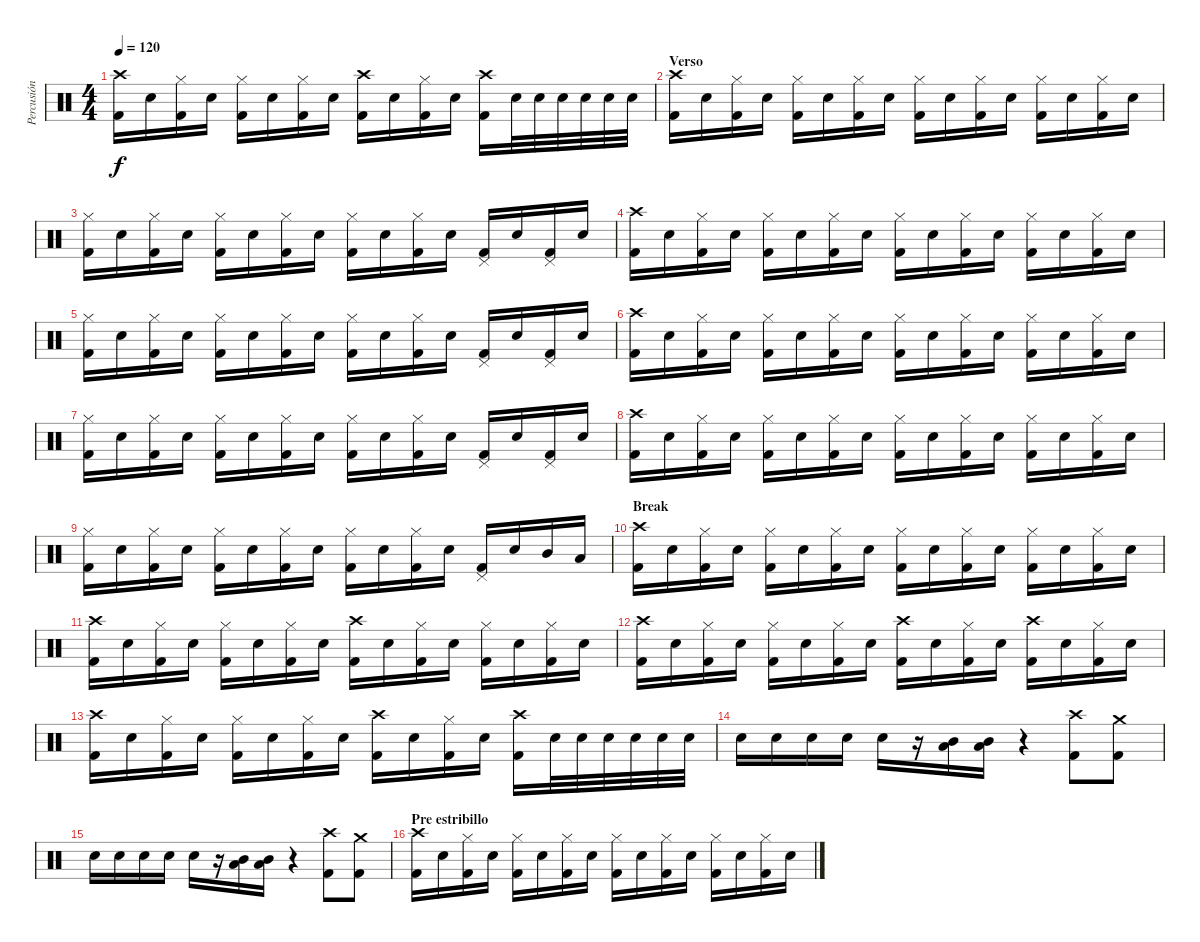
\track ("Percusión" "Percusión") {instrument percussion}
\staff {score}
\articulation defaults
\ts (4 4)
\tempo 120
\clef neutral
\ks c
("Crash high (hit)" "Kick (hit) 2").16{dy f} "Snare (hit) 2".16 ("Hi-Hat (closed)" "Kick (hit) 2").16 "Snare (hit) 2".16 ("Hi-Hat (closed)" "Kick (hit) 2").16 "Snare (hit) 2".16 ("Hi-Hat (closed)" "Kick (hit) 2").16 "Snare (hit) 2".16 ("Crash high (hit)" "Kick (hit) 2").16 "Snare (hit) 2".16 ("Hi-Hat (closed)" "Kick (hit) 2").16 "Snare (hit) 2".16 ("Crash high (hit)" "Kick (hit) 2").16 "Snare (hit) 2".32 "Snare (hit) 2".32 "Snare (hit) 2".32 "Snare (hit) 2".32 "Snare (hit) 2".32 "Snare (hit) 2".32 |
\section ("" "Verso")
("Crash high (hit)" "Kick (hit) 2").16 "Snare (hit) 2".16 ("Hi-Hat (closed)" "Kick (hit) 2").16 "Snare (hit) 2".16 ("Hi-Hat (closed)" "Kick (hit) 2").16 "Snare (hit) 2".16 ("Hi-Hat (closed)" "Kick (hit) 2").16 "Snare (hit) 2".16 ("Hi-Hat (closed)" "Kick (hit) 2").16 "Snare (hit) 2".16 ("Hi-Hat (closed)" "Kick (hit) 2").16 "Snare (hit) 2".16 ("Hi-Hat (closed)" "Kick (hit) 2").16 "Snare (hit) 2".16 ("Hi-Hat (closed)" "Kick (hit) 2").16 "Snare (hit) 2".16 |
("Hi-Hat (closed)" "Kick (hit) 2").16 "Snare (hit) 2".16 ("Hi-Hat (closed)" "Kick (hit) 2").16 "Snare (hit) 2".16 ("Hi-Hat (closed)" "Kick (hit) 2").16 "Snare (hit) 2".16 ("Hi-Hat (closed)" "Kick (hit) 2").16 "Snare (hit) 2".16 ("Hi-Hat (closed)" "Kick (hit) 2").16 "Snare (hit) 2".16 ("Hi-Hat (closed)" "Kick (hit) 2").16 "Snare (hit) 2".16 ("Pedal Hi-Hat (hit)" "Kick (hit) 2").16 "Snare (hit) 2".16 ("Pedal Hi-Hat (hit)" "Kick (hit) 2").16 "Snare (hit) 2".16 |
("Crash high (hit)" "Kick (hit) 2").16 "Snare (hit) 2".16 ("Hi-Hat (closed)" "Kick (hit) 2").16 "Snare (hit) 2".16 ("Hi-Hat (closed)" "Kick (hit) 2").16 "Snare (hit) 2".16 ("Hi-Hat (closed)" "Kick (hit) 2").16 "Snare (hit) 2".16 ("Hi-Hat (closed)" "Kick (hit) 2").16 "Snare (hit) 2".16 ("Hi-Hat (closed)" "Kick (hit) 2").16 "Snare (hit) 2".16 ("Hi-Hat (closed)" "Kick (hit) 2").16 "Snare (hit) 2".16 ("Hi-Hat (closed)" "Kick (hit) 2").16 "Snare (hit) 2".16 |
("Hi-Hat (closed)" "Kick (hit) 2").16 "Snare (hit) 2".16 ("Hi-Hat (closed)" "Kick (hit) 2").16 "Snare (hit) 2".16 ("Hi-Hat (closed)" "Kick (hit) 2").16 "Snare (hit) 2".16 ("Hi-Hat (closed)" "Kick (hit) 2").16 "Snare (hit) 2".16 ("Hi-Hat (closed)" "Kick (hit) 2").16 "Snare (hit) 2".16 ("Hi-Hat (closed)" "Kick (hit) 2").16 "Snare (hit) 2".16 ("Pedal Hi-Hat (hit)" "Kick (hit) 2").16 "Snare (hit) 2".16 ("Pedal Hi-Hat (hit)" "Kick (hit) 2").16 "Snare (hit) 2".16 |
("Crash high (hit)" "Kick (hit) 2").16 "Snare (hit) 2".16 ("Hi-Hat (closed)" "Kick (hit) 2").16 "Snare (hit) 2".16 ("Hi-Hat (closed)" "Kick (hit) 2").16 "Snare (hit) 2".16 ("Hi-Hat (closed)" "Kick (hit) 2").16 "Snare (hit) 2".16 ("Hi-Hat (closed)" "Kick (hit) 2").16 "Snare (hit) 2".16 ("Hi-Hat (closed)" "Kick (hit) 2").16 "Snare (hit) 2".16 ("Hi-Hat (closed)" "Kick (hit) 2").16 "Snare (hit) 2".16 ("Hi-Hat (closed)" "Kick (hit) 2").16 "Snare (hit) 2".16 |
("Hi-Hat (closed)" "Kick (hit) 2").16 "Snare (hit) 2".16 ("Hi-Hat (closed)" "Kick (hit) 2").16 "Snare (hit) 2".16 ("Hi-Hat (closed)" "Kick (hit) 2").16 "Snare (hit) 2".16 ("Hi-Hat (closed)" "Kick (hit) 2").16 "Snare (hit) 2".16 ("Hi-Hat (closed)" "Kick (hit) 2").16 "Snare (hit) 2".16 ("Hi-Hat (closed)" "Kick (hit) 2").16 "Snare (hit) 2".16 ("Pedal Hi-Hat (hit)" "Kick (hit) 2").16 "Snare (hit) 2".16 ("Pedal Hi-Hat (hit)" "Kick (hit) 2").16 "Snare (hit) 2".16 |
("Crash high (hit)" "Kick (hit) 2").16 "Snare (hit) 2".16 ("Hi-Hat (closed)" "Kick (hit) 2").16 "Snare (hit) 2".16 ("Hi-Hat (closed)" "Kick (hit) 2").16 "Snare (hit) 2".16 ("Hi-Hat (closed)" "Kick (hit) 2").16 "Snare (hit) 2".16 ("Hi-Hat (closed)" "Kick (hit) 2").16 "Snare (hit) 2".16 ("Hi-Hat (closed)" "Kick (hit) 2").16 "Snare (hit) 2".16 ("Hi-Hat (closed)" "Kick (hit) 2").16 "Snare (hit) 2".16 ("Hi-Hat (closed)" "Kick (hit) 2").16 "Snare (hit) 2".16 |
("Hi-Hat (closed)" "Kick (hit) 2").16 "Snare (hit) 2".16 ("Hi-Hat (closed)" "Kick (hit) 2").16 "Snare (hit) 2".16 ("Hi-Hat (closed)" "Kick (hit) 2").16 "Snare (hit) 2".16 ("Hi-Hat (closed)" "Kick (hit) 2").16 "Snare (hit) 2".16 ("Hi-Hat (closed)" "Kick (hit) 2").16 "Snare (hit) 2".16 ("Hi-Hat (closed)" "Kick (hit) 2").16 "Snare (hit) 2".16 ("Pedal Hi-Hat (hit)" "Kick (hit) 2").16 "Snare (hit) 2".16 "Mid Tom (hit)".16 "Low Tom (hit)".16 |
\section ("" "Break")
("Crash high (hit)" "Kick (hit) 2").16 "Snare (hit) 2".16 ("Hi-Hat (closed)" "Kick (hit) 2").16 "Snare (hit) 2".16 ("Hi-Hat (closed)" "Kick (hit) 2").16 "Snare (hit) 2".16 ("Hi-Hat (closed)" "Kick (hit) 2").16 "Snare (hit) 2".16 ("Hi-Hat (closed)" "Kick (hit) 2").16 "Snare (hit) 2".16 ("Hi-Hat (closed)" "Kick (hit) 2").16 "Snare (hit) 2".16 ("Hi-Hat (closed)" "Kick (hit) 2").16 "Snare (hit) 2".16 ("Hi-Hat (closed)" "Kick (hit) 2").16 "Snare (hit) 2".16 |
("Crash high (hit)" "Kick (hit) 2").16 "Snare (hit) 2".16 ("Hi-Hat (closed)" "Kick (hit) 2").16 "Snare (hit) 2".16 ("Hi-Hat (closed)" "Kick (hit) 2").16 "Snare (hit) 2".16 ("Hi-Hat (closed)" "Kick (hit) 2").16 "Snare (hit) 2".16 ("Crash high (hit)" "Kick (hit) 2").16 "Snare (hit) 2".16 ("Hi-Hat (closed)" "Kick (hit) 2").16 "Snare (hit) 2".16 ("Hi-Hat (closed)" "Kick (hit) 2").16 "Snare (hit) 2".16 ("Hi-Hat (closed)" "Kick (hit) 2").16 "Snare (hit) 2".16 |
("Crash high (hit)" "Kick (hit) 2").16 "Snare (hit) 2".16 ("Hi-Hat (closed)" "Kick (hit) 2").16 "Snare (hit) 2".16 ("Hi-Hat (closed)" "Kick (hit) 2").16 "Snare (hit) 2".16 ("Hi-Hat (closed)" "Kick (hit) 2").16 "Snare (hit) 2".16 ("Crash high (hit)" "Kick (hit) 2").16 "Snare (hit) 2".16 ("Hi-Hat (closed)" "Kick (hit) 2").16 "Snare (hit) 2".16 ("Crash high (hit)" "Kick (hit) 2").16 "Snare (hit) 2".16 ("Hi-Hat (closed)" "Kick (hit) 2").16 "Snare (hit) 2".16 |
("Crash high (hit)" "Kick (hit) 2").16 "Snare (hit) 2".16 ("Hi-Hat (closed)" "Kick (hit) 2").16 "Snare (hit) 2".16 ("Hi-Hat (closed)" "Kick (hit) 2").16 "Snare (hit) 2".16 ("Hi-Hat (closed)" "Kick (hit) 2").16 "Snare (hit) 2".16 ("Crash high (hit)" "Kick (hit) 2").16 "Snare (hit) 2".16 ("Hi-Hat (closed)" "Kick (hit) 2").16 "Snare (hit) 2".16 ("Crash high (hit)" "Kick (hit) 2").16 "Snare (hit) 2".32 "Snare (hit) 2".32 "Snare (hit) 2".32 "Snare (hit) 2".32 "Snare (hit) 2".32 "Snare (hit) 2".32 |
"Snare (hit) 2".16 "Snare (hit) 2".16 "Snare (hit) 2".16 "Snare (hit) 2".16 "Snare (hit) 2".16 r.16 ("Mid Tom (hit)" "Low Tom (hit)").16 ("Mid Tom (hit)" "Low Tom (hit)").16 r.4 ("Crash high (hit)" "Kick (hit) 2").8 ("Crash medium (hit)" "Kick (hit) 2").8 |
"Snare (hit) 2".16 "Snare (hit) 2".16 "Snare (hit) 2".16 "Snare (hit) 2".16 "Snare (hit) 2".16 r.16 ("Mid Tom (hit)" "Low Tom (hit)").16 ("Mid Tom (hit)" "Low Tom (hit)").16 r.4 ("Crash high (hit)" "Kick (hit) 2").8 ("Crash medium (hit)" "Kick (hit) 2").8 |
\section ("" "Pre estribillo")
("Crash high (hit)" "Kick (hit) 2").16 "Snare (hit) 2".16 ("Hi-Hat (closed)" "Kick (hit) 2").16 "Snare (hit) 2".16 ("Hi-Hat (closed)" "Kick (hit) 2").16 "Snare (hit) 2".16 ("Hi-Hat (closed)" "Kick (hit) 2").16 "Snare (hit) 2".16 ("Hi-Hat (closed)" "Kick (hit) 2").16 "Snare (hit) 2".16 ("Hi-Hat (closed)" "Kick (hit) 2").16 "Snare (hit) 2".16 ("Hi-Hat (closed)" "Kick (hit) 2").16 "Snare (hit) 2".16 ("Hi-Hat (closed)" "Kick (hit) 2").16 "Snare (hit) 2".16
